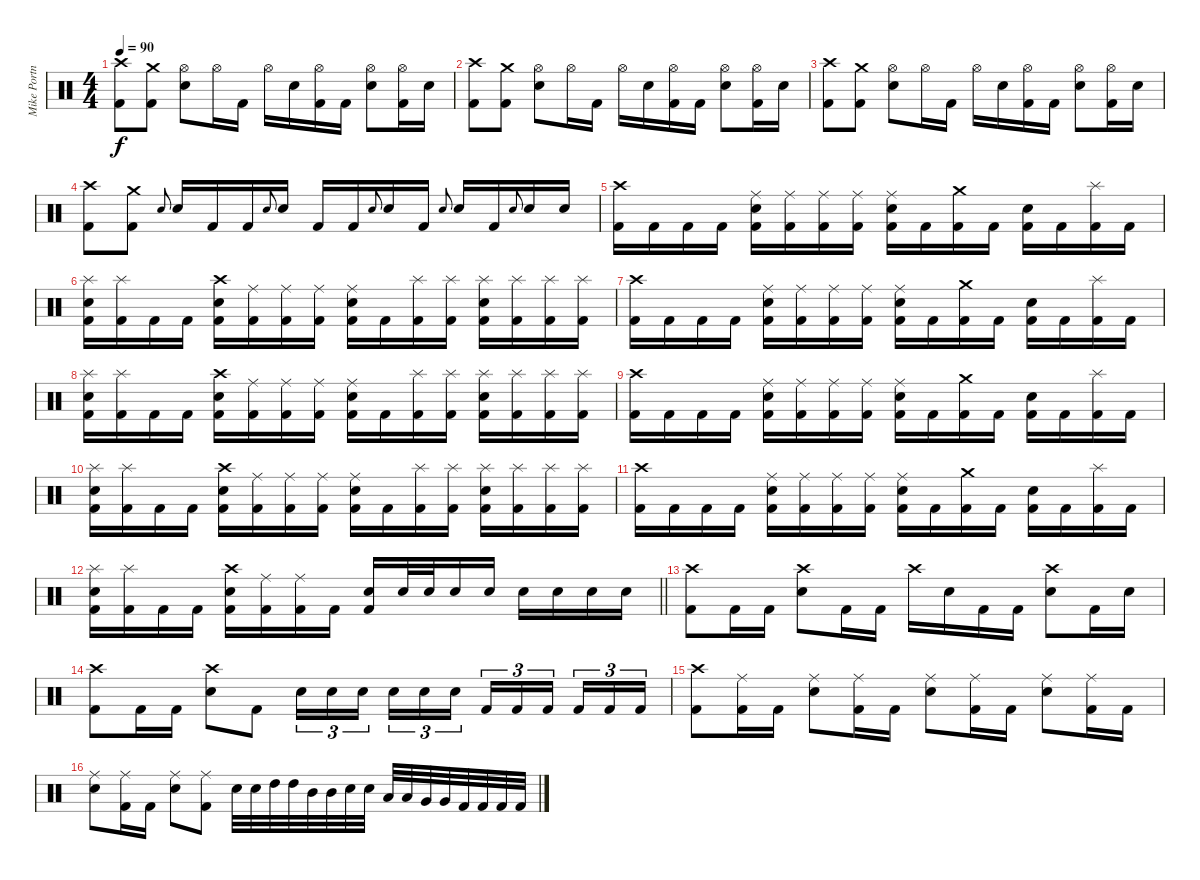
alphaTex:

\track ("Mike Portnoy" "Mike Portn") {instrument percussion}
\staff {score}
\articulation defaults
\ts (4 4)
\tempo 90
\clef neutral
\ks c
("Crash high (hit)" "Kick (hit) 2").8{dy f} ("Crash medium (hit)" "Kick (hit) 2").8 ("Hi-Hat (open)" "Snare (hit) 2").8 "Hi-Hat (open)".16 "Kick (hit) 2".16 "Hi-Hat (open)".16 "Snare (hit) 2".16 ("Hi-Hat (open)" "Kick (hit) 2").16 "Kick (hit) 2".16 ("Hi-Hat (open)" "Snare (hit) 2").8 ("Hi-Hat (open)" "Kick (hit) 2").16 "Snare (hit) 2".16 |
("Crash high (hit)" "Kick (hit) 2").8 ("Crash medium (hit)" "Kick (hit) 2").8 ("Hi-Hat (open)" "Snare (hit) 2").8 "Hi-Hat (open)".16 "Kick (hit) 2".16 "Hi-Hat (open)".16 "Snare (hit) 2".16 ("Hi-Hat (open)" "Kick (hit) 2").16 "Kick (hit) 2".16 ("Hi-Hat (open)" "Snare (hit) 2").8 ("Hi-Hat (open)" "Kick (hit) 2").16 "Snare (hit) 2".16 |
("Crash high (hit)" "Kick (hit) 2").8 ("Crash medium (hit)" "Kick (hit) 2").8 ("Hi-Hat (open)" "Snare (hit) 2").8 "Hi-Hat (open)".16 "Kick (hit) 2".16 "Hi-Hat (open)".16 "Snare (hit) 2".16 ("Hi-Hat (open)" "Kick (hit) 2").16 "Kick (hit) 2".16 ("Hi-Hat (open)" "Snare (hit) 2").8 ("Hi-Hat (open)" "Kick (hit) 2").16 "Snare (hit) 2".16 |
("Crash high (hit)" "Kick (hit) 2").8 ("Crash medium (hit)" "Kick (hit) 2").8 "Snare (hit) 2".8{gr onbeat} "Snare (hit) 2".16 "Kick (hit) 2".16 "Kick (hit) 2".16 "Snare (hit) 2".8{gr onbeat} "Snare (hit) 2".16 "Kick (hit) 2".16 "Kick (hit) 2".16 "Snare (hit) 2".8{gr onbeat} "Snare (hit) 2".16 "Kick (hit) 2".16 "Snare (hit) 2".8{gr onbeat} "Snare (hit) 2".16 "Kick (hit) 2".16 "Snare (hit) 2".8{gr onbeat} "Snare (hit) 2".16 "Snare (hit) 2".16 |
("Crash high (hit)" "Kick (hit) 2").16 "Kick (hit) 2".16 "Kick (hit) 2".16 "Kick (hit) 2".16 ("Ride (middle)" "Snare (hit) 2" "Kick (hit) 2").16 ("Ride (middle)" "Kick (hit) 2").16 ("Ride (middle)" "Kick (hit) 2").16 ("Ride (middle)" "Kick (hit) 2").16 ("Ride (middle)" "Snare (hit) 2" "Kick (hit) 2").16 "Kick (hit) 2".16 ("Crash medium (hit)" "Kick (hit) 2").16 "Kick (hit) 2".16 ("Snare (hit) 2" "Kick (hit) 2").16 "Kick (hit) 2".16 ("Splash (hit)" "Kick (hit) 2").16 "Kick (hit) 2".16 |
("Splash (hit)" "Snare (hit) 2" "Kick (hit) 2").16 ("Splash (hit)" "Kick (hit) 2").16 "Kick (hit) 2".16 "Kick (hit) 2".16 ("Crash high (hit)" "Snare (hit) 2" "Kick (hit) 2").16 ("Ride (middle)" "Kick (hit) 2").16 ("Ride (middle)" "Kick (hit) 2").16 ("Ride (middle)" "Kick (hit) 2").16 ("Ride (middle)" "Snare (hit) 2" "Kick (hit) 2").16 "Kick (hit) 2".16 ("Splash (hit)" "Kick (hit) 2").16 ("Splash (hit)" "Kick (hit) 2").16 ("Splash (hit)" "Snare (hit) 2" "Kick (hit) 2").16 ("Splash (hit)" "Kick (hit) 2").16 ("Splash (hit)" "Kick (hit) 2").16 ("Splash (hit)" "Kick (hit) 2").16 |
("Crash high (hit)" "Kick (hit) 2").16 "Kick (hit) 2".16 "Kick (hit) 2".16 "Kick (hit) 2".16 ("Ride (middle)" "Snare (hit) 2" "Kick (hit) 2").16 ("Ride (middle)" "Kick (hit) 2").16 ("Ride (middle)" "Kick (hit) 2").16 ("Ride (middle)" "Kick (hit) 2").16 ("Ride (middle)" "Snare (hit) 2" "Kick (hit) 2").16 "Kick (hit) 2".16 ("Crash medium (hit)" "Kick (hit) 2").16 "Kick (hit) 2".16 ("Snare (hit) 2" "Kick (hit) 2").16 "Kick (hit) 2".16 ("Splash (hit)" "Kick (hit) 2").16 "Kick (hit) 2".16 |
("Splash (hit)" "Snare (hit) 2" "Kick (hit) 2").16 ("Splash (hit)" "Kick (hit) 2").16 "Kick (hit) 2".16 "Kick (hit) 2".16 ("Crash high (hit)" "Snare (hit) 2" "Kick (hit) 2").16 ("Ride (middle)" "Kick (hit) 2").16 ("Ride (middle)" "Kick (hit) 2").16 ("Ride (middle)" "Kick (hit) 2").16 ("Ride (middle)" "Snare (hit) 2" "Kick (hit) 2").16 "Kick (hit) 2".16 ("Splash (hit)" "Kick (hit) 2").16 ("Splash (hit)" "Kick (hit) 2").16 ("Splash (hit)" "Snare (hit) 2" "Kick (hit) 2").16 ("Splash (hit)" "Kick (hit) 2").16 ("Splash (hit)" "Kick (hit) 2").16 ("Splash (hit)" "Kick (hit) 2").16 |
("Crash high (hit)" "Kick (hit) 2").16 "Kick (hit) 2".16 "Kick (hit) 2".16 "Kick (hit) 2".16 ("Ride (middle)" "Snare (hit) 2" "Kick (hit) 2").16 ("Ride (middle)" "Kick (hit) 2").16 ("Ride (middle)" "Kick (hit) 2").16 ("Ride (middle)" "Kick (hit) 2").16 ("Ride (middle)" "Snare (hit) 2" "Kick (hit) 2").16 "Kick (hit) 2".16 ("Crash medium (hit)" "Kick (hit) 2").16 "Kick (hit) 2".16 ("Snare (hit) 2" "Kick (hit) 2").16 "Kick (hit) 2".16 ("Splash (hit)" "Kick (hit) 2").16 "Kick (hit) 2".16 |
("Splash (hit)" "Snare (hit) 2" "Kick (hit) 2").16 ("Splash (hit)" "Kick (hit) 2").16 "Kick (hit) 2".16 "Kick (hit) 2".16 ("Crash high (hit)" "Snare (hit) 2" "Kick (hit) 2").16 ("Ride (middle)" "Kick (hit) 2").16 ("Ride (middle)" "Kick (hit) 2").16 ("Ride (middle)" "Kick (hit) 2").16 ("Ride (middle)" "Snare (hit) 2" "Kick (hit) 2").16 "Kick (hit) 2".16 ("Splash (hit)" "Kick (hit) 2").16 ("Splash (hit)" "Kick (hit) 2").16 ("Splash (hit)" "Snare (hit) 2" "Kick (hit) 2").16 ("Splash (hit)" "Kick (hit) 2").16 ("Splash (hit)" "Kick (hit) 2").16 ("Splash (hit)" "Kick (hit) 2").16 |
("Crash high (hit)" "Kick (hit) 2").16 "Kick (hit) 2".16 "Kick (hit) 2".16 "Kick (hit) 2".16 ("Ride (middle)" "Snare (hit) 2" "Kick (hit) 2").16 ("Ride (middle)" "Kick (hit) 2").16 ("Ride (middle)" "Kick (hit) 2").16 ("Ride (middle)" "Kick (hit) 2").16 ("Ride (middle)" "Snare (hit) 2" "Kick (hit) 2").16 "Kick (hit) 2".16 ("Crash medium (hit)" "Kick (hit) 2").16 "Kick (hit) 2".16 ("Snare (hit) 2" "Kick (hit) 2").16 "Kick (hit) 2".16 ("Splash (hit)" "Kick (hit) 2").16 "Kick (hit) 2".16 |
\barLineRight lightlight
("Splash (hit)" "Snare (hit) 2" "Kick (hit) 2").16 ("Splash (hit)" "Kick (hit) 2").16 "Kick (hit) 2".16 "Kick (hit) 2".16 ("Crash high (hit)" "Snare (hit) 2" "Kick (hit) 2").16 ("Ride (middle)" "Kick (hit) 2").16 ("Ride (middle)" "Kick (hit) 2").16 "Kick (hit) 2".16 ("Snare (hit) 2" "Kick (hit) 2").16 "Snare (hit) 2".32 "Snare (hit) 2".32 "Snare (hit) 2".16 "Snare (hit) 2".16 "Snare (hit) 2".16 "Snare (hit) 2".16 "Snare (hit) 2".16 "Snare (hit) 2".16 |
("Crash high (hit)" "Kick (hit) 2").8 "Kick (hit) 2".16 "Kick (hit) 2".16 ("Crash high (hit)" "Snare (hit) 2").8 "Kick (hit) 2".16 "Kick (hit) 2".16 "Crash high (hit)".16 "Snare (hit) 2".16 "Kick (hit) 2".16 "Kick (hit) 2".16 ("Crash high (hit)" "Snare (hit) 2").8 "Kick (hit) 2".16 "Snare (hit) 2".16 |
("Crash high (hit)" "Kick (hit) 2").8 "Kick (hit) 2".16 "Kick (hit) 2".16 ("Crash high (hit)" "Snare (hit) 2").8 "Kick (hit) 2".8 "Snare (hit) 2".16{tu (3 2)} "Snare (hit) 2".16{tu (3 2)} "Snare (hit) 2".16{tu (3 2) beam splitsecondary} "Snare (hit) 2".16{tu (3 2)} "Snare (hit) 2".16{tu (3 2)} "Snare (hit) 2".16{tu (3 2)} "Kick (hit) 2".16{tu (3 2)} "Kick (hit) 2".16{tu (3 2)} "Kick (hit) 2".16{tu (3 2) beam splitsecondary} "Kick (hit) 2".16{tu (3 2)} "Kick (hit) 2".16{tu (3 2)} "Kick (hit) 2".16{tu (3 2)} |
("Crash high (hit)" "Kick (hit) 2").8 ("Ride (middle)" "Kick (hit) 2").16 "Kick (hit) 2".16 ("Ride (middle)" "Snare (hit) 2").8 ("Ride (middle)" "Kick (hit) 2").16 "Kick (hit) 2".16 ("Ride (middle)" "Snare (hit) 2").8 ("Ride (middle)" "Kick (hit) 2").16 "Kick (hit) 2".16 ("Ride (middle)" "Snare (hit) 2").8 ("Ride (middle)" "Kick (hit) 2").16 "Kick (hit) 2".16 |
("Ride (middle)" "Snare (hit) 2").8 ("Ride (middle)" "Kick (hit) 2").16 "Kick (hit) 2".16 ("Ride (middle)" "Snare (hit) 2").8 ("Ride (middle)" "Kick (hit) 2").8 "Snare (hit) 2".32 "Snare (hit) 2".32 "High Tom (hit)".32 "High Tom (hit)".32 "Mid Tom (hit)".32 "Mid Tom (hit)".32 "Snare (hit) 2".32 "Snare (hit) 2".32 "Low Tom (hit)".32 "Low Tom (hit)".32 "Very Low Tom (hit)".32 "Very Low Tom (hit)".32 "Kick (hit) 2".32 "Kick (hit) 2".32 "Kick (hit) 2".32 "Kick (hit) 2".32
